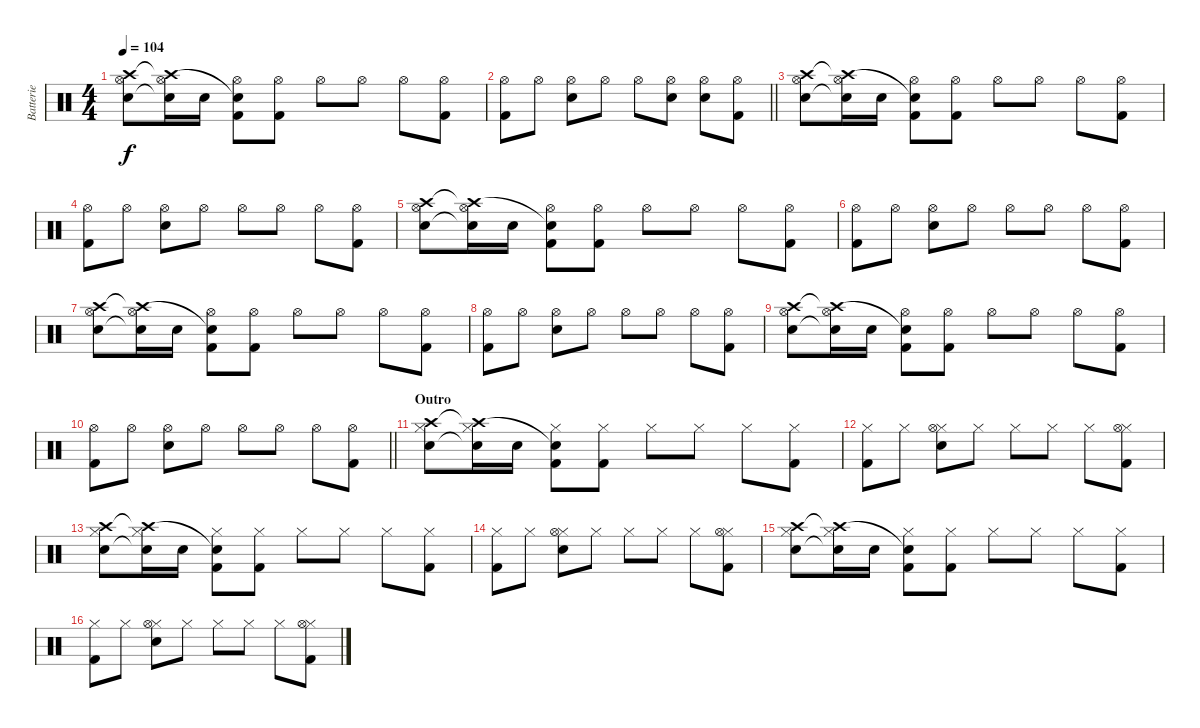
\track ("Batterie" "Batterie") {instrument percussion}
\staff {score}
\articulation defaults
\ts (4 4)
\tempo 104
\clef neutral
\ks c
("Hi-Hat (open)" "Crash high (hit)" "Electric Snare (hit)").8{dy f} ("Hi-Hat (open)" "Crash high (hit)"{t} "Electric Snare (hit)"{t}).16 "Electric Snare (hit)".16 ("Hi-Hat (open)" "Snare (hit) 2"{t} "Kick (hit) 2").8 ("Hi-Hat (open)" "Kick (hit) 2").8 "Hi-Hat (open)".8 "Hi-Hat (open)".8 "Hi-Hat (open)".8 ("Hi-Hat (open)" "Kick (hit) 2").8 |
\barLineRight lightlight
("Hi-Hat (open)" "Kick (hit) 2").8 "Hi-Hat (open)".8 ("Hi-Hat (open)" "Electric Snare (hit)").8 "Hi-Hat (open)".8 "Hi-Hat (open)".8 ("Hi-Hat (open)" "Electric Snare (hit)").8 ("Hi-Hat (open)" "Electric Snare (hit)").8 ("Hi-Hat (open)" "Kick (hit) 2").8 |
\section ("" "")
("Hi-Hat (open)" "Crash high (hit)" "Electric Snare (hit)").8 ("Hi-Hat (open)" "Crash high (hit)"{t} "Electric Snare (hit)"{t}).16 "Electric Snare (hit)".16 ("Hi-Hat (open)" "Snare (hit) 2"{t} "Kick (hit) 2").8 ("Hi-Hat (open)" "Kick (hit) 2").8 "Hi-Hat (open)".8 "Hi-Hat (open)".8 "Hi-Hat (open)".8 ("Hi-Hat (open)" "Kick (hit) 2").8 |
("Hi-Hat (open)" "Kick (hit) 2").8 "Hi-Hat (open)".8 ("Hi-Hat (open)" "Electric Snare (hit)").8 "Hi-Hat (open)".8 "Hi-Hat (open)".8 "Hi-Hat (open)".8 "Hi-Hat (open)".8 ("Hi-Hat (open)" "Kick (hit) 2").8 |
("Hi-Hat (open)" "Crash high (hit)" "Electric Snare (hit)").8 ("Hi-Hat (open)" "Crash high (hit)"{t} "Electric Snare (hit)"{t}).16 "Electric Snare (hit)".16 ("Hi-Hat (open)" "Snare (hit) 2"{t} "Kick (hit) 2").8 ("Hi-Hat (open)" "Kick (hit) 2").8 "Hi-Hat (open)".8 "Hi-Hat (open)".8 "Hi-Hat (open)".8 ("Hi-Hat (open)" "Kick (hit) 2").8 |
("Hi-Hat (open)" "Kick (hit) 2").8 "Hi-Hat (open)".8 ("Hi-Hat (open)" "Electric Snare (hit)").8 "Hi-Hat (open)".8 "Hi-Hat (open)".8 "Hi-Hat (open)".8 "Hi-Hat (open)".8 ("Hi-Hat (open)" "Kick (hit) 2").8 |
("Hi-Hat (open)" "Crash high (hit)" "Electric Snare (hit)").8 ("Hi-Hat (open)" "Crash high (hit)"{t} "Electric Snare (hit)"{t}).16 "Electric Snare (hit)".16 ("Hi-Hat (open)" "Snare (hit) 2"{t} "Kick (hit) 2").8 ("Hi-Hat (open)" "Kick (hit) 2").8 "Hi-Hat (open)".8 "Hi-Hat (open)".8 "Hi-Hat (open)".8 ("Hi-Hat (open)" "Kick (hit) 2").8 |
("Hi-Hat (open)" "Kick (hit) 2").8 "Hi-Hat (open)".8 ("Hi-Hat (open)" "Electric Snare (hit)").8 "Hi-Hat (open)".8 "Hi-Hat (open)".8 "Hi-Hat (open)".8 "Hi-Hat (open)".8 ("Hi-Hat (open)" "Kick (hit) 2").8 |
("Hi-Hat (open)" "Crash high (hit)" "Electric Snare (hit)").8 ("Hi-Hat (open)" "Crash high (hit)"{t} "Electric Snare (hit)"{t}).16 "Electric Snare (hit)".16 ("Hi-Hat (open)" "Snare (hit) 2"{t} "Kick (hit) 2").8 ("Hi-Hat (open)" "Kick (hit) 2").8 "Hi-Hat (open)".8 "Hi-Hat (open)".8 "Hi-Hat (open)".8 ("Hi-Hat (open)" "Kick (hit) 2").8 |
\barLineRight lightlight
("Hi-Hat (open)" "Kick (hit) 2").8 "Hi-Hat (open)".8 ("Hi-Hat (open)" "Electric Snare (hit)").8 "Hi-Hat (open)".8 "Hi-Hat (open)".8 "Hi-Hat (open)".8 "Hi-Hat (open)".8 ("Hi-Hat (open)" "Kick (hit) 2").8 |
\section ("" "Outro")
("Hi-Hat (closed)" "Crash high (hit)" "Electric Snare (hit)").8 ("Hi-Hat (closed)" "Crash high (hit)"{t} "Electric Snare (hit)"{t}).16 "Electric Snare (hit)".16 ("Hi-Hat (closed)" "Snare (hit) 2"{t} "Kick (hit) 2").8 ("Hi-Hat (closed)" "Kick (hit) 2").8 "Hi-Hat (closed)".8 "Hi-Hat (closed)".8 "Hi-Hat (closed)".8 ("Hi-Hat (closed)" "Kick (hit) 2").8 |
("Hi-Hat (closed)" "Kick (hit) 2").8 "Hi-Hat (closed)".8 ("Hi-Hat (closed)" "Hi-Hat (open)" "Electric Snare (hit)").8 "Hi-Hat (closed)".8 "Hi-Hat (closed)".8 "Hi-Hat (closed)".8 "Hi-Hat (closed)".8 ("Hi-Hat (closed)" "Hi-Hat (open)" "Kick (hit) 2").8 |
("Hi-Hat (closed)" "Crash high (hit)" "Electric Snare (hit)").8 ("Hi-Hat (closed)" "Crash high (hit)"{t} "Electric Snare (hit)"{t}).16 "Electric Snare (hit)".16 ("Hi-Hat (closed)" "Snare (hit) 2"{t} "Kick (hit) 2").8 ("Hi-Hat (closed)" "Kick (hit) 2").8 "Hi-Hat (closed)".8 "Hi-Hat (closed)".8 "Hi-Hat (closed)".8 ("Hi-Hat (closed)" "Kick (hit) 2").8 |
("Hi-Hat (closed)" "Kick (hit) 2").8 "Hi-Hat (closed)".8 ("Hi-Hat (closed)" "Hi-Hat (open)" "Electric Snare (hit)").8 "Hi-Hat (closed)".8 "Hi-Hat (closed)".8 "Hi-Hat (closed)".8 "Hi-Hat (closed)".8 ("Hi-Hat (closed)" "Hi-Hat (open)" "Kick (hit) 2").8 |
("Hi-Hat (closed)" "Crash high (hit)" "Electric Snare (hit)").8 ("Hi-Hat (closed)" "Crash high (hit)"{t} "Electric Snare (hit)"{t}).16 "Electric Snare (hit)".16 ("Hi-Hat (closed)" "Snare (hit) 2"{t} "Kick (hit) 2").8 ("Hi-Hat (closed)" "Kick (hit) 2").8 "Hi-Hat (closed)".8 "Hi-Hat (closed)".8 "Hi-Hat (closed)".8 ("Hi-Hat (closed)" "Kick (hit) 2").8 |
("Hi-Hat (closed)" "Kick (hit) 2").8 "Hi-Hat (closed)".8 ("Hi-Hat (closed)" "Hi-Hat (open)" "Electric Snare (hit)").8 "Hi-Hat (closed)".8 "Hi-Hat (closed)".8 "Hi-Hat (closed)".8 "Hi-Hat (closed)".8 ("Hi-Hat (closed)" "Hi-Hat (open)" "Kick (hit) 2").8
